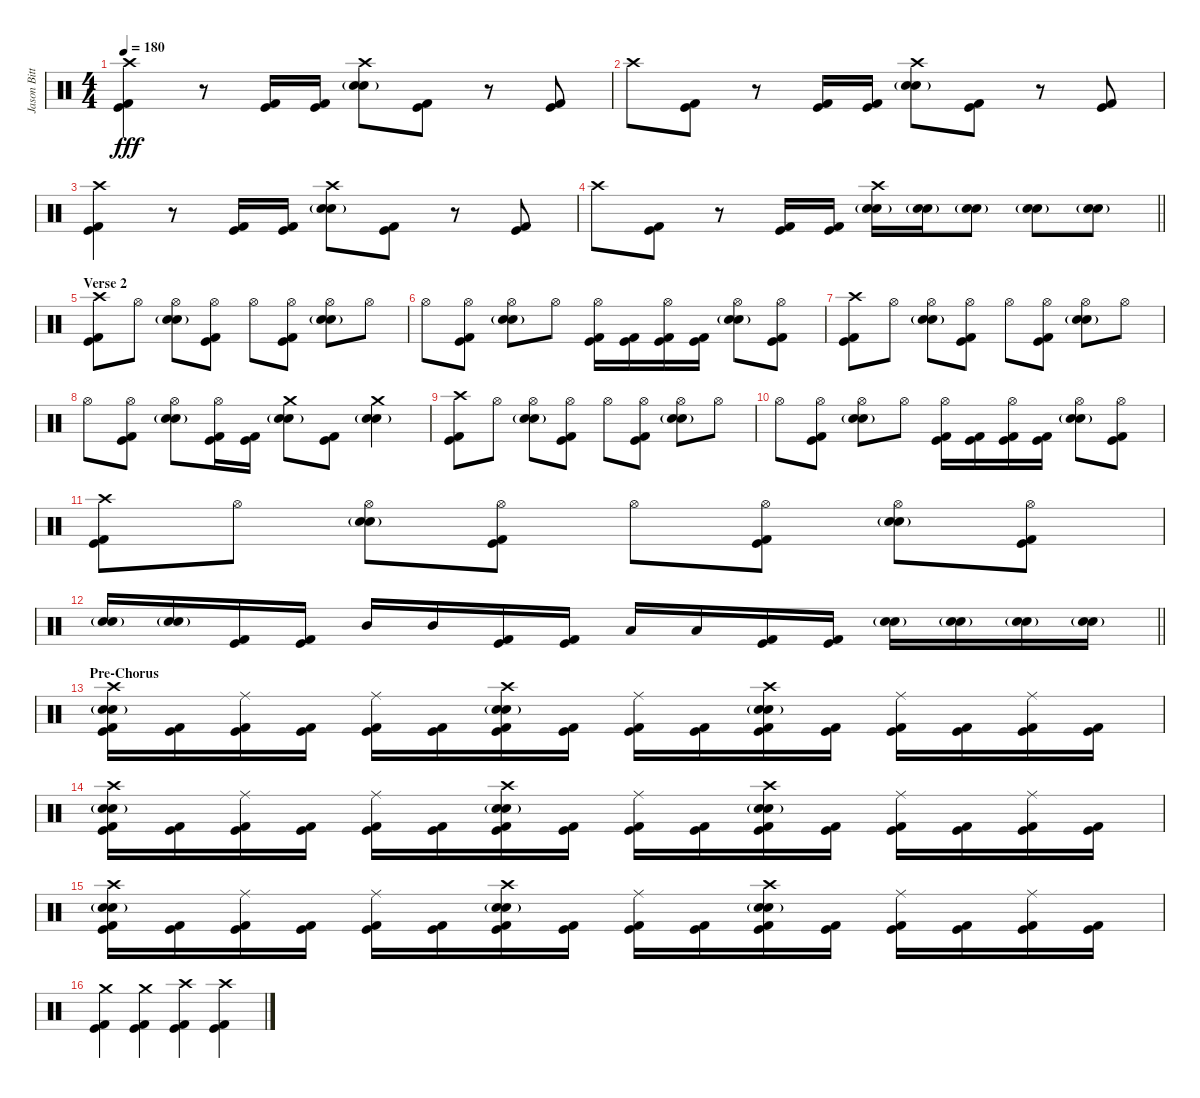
\track ("Jason Bittner" "Jason Bitt") {instrument percussion}
\staff {score}
\articulation defaults
\ts (4 4)
\tempo 180
\clef neutral
\ks c
("Crash high (hit)" "Kick (hit)" "Kick (hit) 2").4{dy fff} r.8 ("Kick (hit)" "Kick (hit) 2").16 ("Kick (hit)" "Kick (hit) 2").16 ("Crash high (hit)" "Snare (hit) 2"{g} "Electric Snare (hit)").8 ("Kick (hit)" "Kick (hit) 2").8 r.8 ("Kick (hit)" "Kick (hit) 2").8 |
"Crash high (hit)".8 ("Kick (hit)" "Kick (hit) 2").8 r.8 ("Kick (hit)" "Kick (hit) 2").16 ("Kick (hit)" "Kick (hit) 2").16 ("Crash high (hit)" "Snare (hit) 2"{g} "Electric Snare (hit)").8 ("Kick (hit)" "Kick (hit) 2").8 r.8 ("Kick (hit)" "Kick (hit) 2").8 |
("Crash high (hit)" "Kick (hit)" "Kick (hit) 2").4 r.8 ("Kick (hit)" "Kick (hit) 2").16 ("Kick (hit)" "Kick (hit) 2").16 ("Crash high (hit)" "Snare (hit) 2"{g} "Electric Snare (hit)").8 ("Kick (hit)" "Kick (hit) 2").8 r.8 ("Kick (hit)" "Kick (hit) 2").8 |
\barLineRight lightlight "Crash high (hit)".8
("Kick (hit)" "Kick (hit) 2").8 r.8 ("Kick (hit)" "Kick (hit) 2").16 ("Kick (hit)" "Kick (hit) 2").16 ("Crash high (hit)" "Snare (hit) 2"{g} "Electric Snare (hit)").16 ("Snare (hit) 2"{g} "Electric Snare (hit)").16 ("Snare (hit) 2"{g} "Electric Snare (hit)").8 ("Snare (hit) 2"{g} "Electric Snare (hit)").8 ("Snare (hit) 2"{g} "Electric Snare (hit)").8 |
\section ("" "Verse 2")
("Crash high (hit)" "Kick (hit)" "Kick (hit) 2").8 "Hi-Hat (open)".8 ("Hi-Hat (open)" "Snare (hit) 2"{g} "Electric Snare (hit)").8 ("Hi-Hat (open)" "Kick (hit)" "Kick (hit) 2").8 "Hi-Hat (open)".8 ("Hi-Hat (open)" "Kick (hit)" "Kick (hit) 2").8 ("Hi-Hat (open)" "Snare (hit) 2"{g} "Electric Snare (hit)").8 "Hi-Hat (open)".8 |
"Hi-Hat (open)".8 ("Hi-Hat (open)" "Kick (hit)" "Kick (hit) 2").8 ("Hi-Hat (open)" "Snare (hit) 2"{g} "Electric Snare (hit)").8 "Hi-Hat (open)".8 ("Hi-Hat (open)" "Kick (hit)" "Kick (hit) 2").16 ("Kick (hit)" "Kick (hit) 2").16 ("Hi-Hat (open)" "Kick (hit)" "Kick (hit) 2").16 ("Kick (hit)" "Kick (hit) 2").16 ("Hi-Hat (open)" "Snare (hit) 2"{g} "Electric Snare (hit)").8 ("Hi-Hat (open)" "Kick (hit)" "Kick (hit) 2").8 |
("Crash high (hit)" "Kick (hit)" "Kick (hit) 2").8 "Hi-Hat (open)".8 ("Hi-Hat (open)" "Snare (hit) 2"{g} "Electric Snare (hit)").8 ("Hi-Hat (open)" "Kick (hit)" "Kick (hit) 2").8 "Hi-Hat (open)".8 ("Hi-Hat (open)" "Kick (hit)" "Kick (hit) 2").8 ("Hi-Hat (open)" "Snare (hit) 2"{g} "Electric Snare (hit)").8 "Hi-Hat (open)".8 |
"Hi-Hat (open)".8 ("Hi-Hat (open)" "Kick (hit)" "Kick (hit) 2").8 ("Hi-Hat (open)" "Snare (hit) 2"{g} "Electric Snare (hit)").8 ("Hi-Hat (open)" "Kick (hit)" "Kick (hit) 2").16 ("Kick (hit)" "Kick (hit) 2").16 ("Crash medium (hit)" "Snare (hit) 2"{g} "Electric Snare (hit)").8 ("Kick (hit)" "Kick (hit) 2").8 ("Crash medium (hit)" "Snare (hit) 2"{g} "Electric Snare (hit)").4 |
("Crash high (hit)" "Kick (hit)" "Kick (hit) 2").8 "Hi-Hat (open)".8 ("Hi-Hat (open)" "Snare (hit) 2"{g} "Electric Snare (hit)").8 ("Hi-Hat (open)" "Kick (hit)" "Kick (hit) 2").8 "Hi-Hat (open)".8 ("Hi-Hat (open)" "Kick (hit)" "Kick (hit) 2").8 ("Hi-Hat (open)" "Snare (hit) 2"{g} "Electric Snare (hit)").8 "Hi-Hat (open)".8 |
"Hi-Hat (open)".8 ("Hi-Hat (open)" "Kick (hit)" "Kick (hit) 2").8 ("Hi-Hat (open)" "Snare (hit) 2"{g} "Electric Snare (hit)").8 "Hi-Hat (open)".8 ("Hi-Hat (open)" "Kick (hit)" "Kick (hit) 2").16 ("Kick (hit)" "Kick (hit) 2").16 ("Hi-Hat (open)" "Kick (hit)" "Kick (hit) 2").16 ("Kick (hit)" "Kick (hit) 2").16 ("Hi-Hat (open)" "Snare (hit) 2"{g} "Electric Snare (hit)").8 ("Hi-Hat (open)" "Kick (hit)" "Kick (hit) 2").8 |
("Crash high (hit)" "Kick (hit)" "Kick (hit) 2").8 "Hi-Hat (open)".8 ("Hi-Hat (open)" "Snare (hit) 2"{g} "Electric Snare (hit)").8 ("Hi-Hat (open)" "Kick (hit)" "Kick (hit) 2").8 "Hi-Hat (open)".8 ("Hi-Hat (open)" "Kick (hit)" "Kick (hit) 2").8 ("Hi-Hat (open)" "Snare (hit) 2"{g} "Electric Snare (hit)").8 ("Hi-Hat (open)" "Kick (hit)" "Kick (hit) 2").8 |
\barLineRight lightlight
("Snare (hit) 2"{g} "Electric Snare (hit)").16 ("Snare (hit) 2"{g} "Electric Snare (hit)").16 ("Kick (hit)" "Kick (hit) 2").16 ("Kick (hit)" "Kick (hit) 2").16 "Mid Tom (hit)".16 "Mid Tom (hit)".16 ("Kick (hit)" "Kick (hit) 2").16 ("Kick (hit)" "Kick (hit) 2").16 "Low Tom (hit)".16 "Low Tom (hit)".16 ("Kick (hit)" "Kick (hit) 2").16 ("Kick (hit)" "Kick (hit) 2").16 ("Snare (hit) 2"{g} "Electric Snare (hit)").16 ("Snare (hit) 2"{g} "Electric Snare (hit)").16 ("Snare (hit) 2"{g} "Electric Snare (hit)").16 ("Snare (hit) 2"{g} "Electric Snare (hit)").16 |
\section ("" "Pre-Chorus")
("Crash high (hit)" "Snare (hit) 2"{g} "Electric Snare (hit)" "Kick (hit)" "Kick (hit) 2").16 ("Kick (hit)" "Kick (hit) 2").16 ("Ride (middle)" "Kick (hit)" "Kick (hit) 2").16 ("Kick (hit)" "Kick (hit) 2").16 ("Ride (middle)" "Kick (hit)" "Kick (hit) 2").16 ("Kick (hit)" "Kick (hit) 2").16 ("Crash high (hit)" "Snare (hit) 2"{g} "Electric Snare (hit)" "Kick (hit)" "Kick (hit) 2").16 ("Kick (hit)" "Kick (hit) 2").16 ("Ride (middle)" "Kick (hit)" "Kick (hit) 2").16 ("Kick (hit)" "Kick (hit) 2").16 ("Crash high (hit)" "Snare (hit) 2"{g} "Electric Snare (hit)" "Kick (hit)" "Kick (hit) 2").16 ("Kick (hit)" "Kick (hit) 2").16 ("Ride (middle)" "Kick (hit)" "Kick (hit) 2").16 ("Kick (hit)" "Kick (hit) 2").16 ("Ride (middle)" "Kick (hit)" "Kick (hit) 2").16 ("Kick (hit)" "Kick (hit) 2").16 |
("Crash high (hit)" "Snare (hit) 2"{g} "Electric Snare (hit)" "Kick (hit)" "Kick (hit) 2").16 ("Kick (hit)" "Kick (hit) 2").16 ("Ride (middle)" "Kick (hit)" "Kick (hit) 2").16 ("Kick (hit)" "Kick (hit) 2").16 ("Ride (middle)" "Kick (hit)" "Kick (hit) 2").16 ("Kick (hit)" "Kick (hit) 2").16 ("Crash high (hit)" "Snare (hit) 2"{g} "Electric Snare (hit)" "Kick (hit)" "Kick (hit) 2").16 ("Kick (hit)" "Kick (hit) 2").16 ("Ride (middle)" "Kick (hit)" "Kick (hit) 2").16 ("Kick (hit)" "Kick (hit) 2").16 ("Crash high (hit)" "Snare (hit) 2"{g} "Electric Snare (hit)" "Kick (hit)" "Kick (hit) 2").16 ("Kick (hit)" "Kick (hit) 2").16 ("Ride (middle)" "Kick (hit)" "Kick (hit) 2").16 ("Kick (hit)" "Kick (hit) 2").16 ("Ride (middle)" "Kick (hit)" "Kick (hit) 2").16 ("Kick (hit)" "Kick (hit) 2").16 |
("Crash high (hit)" "Snare (hit) 2"{g} "Electric Snare (hit)" "Kick (hit)" "Kick (hit) 2").16 ("Kick (hit)" "Kick (hit) 2").16 ("Ride (middle)" "Kick (hit)" "Kick (hit) 2").16 ("Kick (hit)" "Kick (hit) 2").16 ("Ride (middle)" "Kick (hit)" "Kick (hit) 2").16 ("Kick (hit)" "Kick (hit) 2").16 ("Crash high (hit)" "Snare (hit) 2"{g} "Electric Snare (hit)" "Kick (hit)" "Kick (hit) 2").16 ("Kick (hit)" "Kick (hit) 2").16 ("Ride (middle)" "Kick (hit)" "Kick (hit) 2").16 ("Kick (hit)" "Kick (hit) 2").16 ("Crash high (hit)" "Snare (hit) 2"{g} "Electric Snare (hit)" "Kick (hit)" "Kick (hit) 2").16 ("Kick (hit)" "Kick (hit) 2").16 ("Ride (middle)" "Kick (hit)" "Kick (hit) 2").16 ("Kick (hit)" "Kick (hit) 2").16 ("Ride (middle)" "Kick (hit)" "Kick (hit) 2").16 ("Kick (hit)" "Kick (hit) 2").16 |
("Crash medium (hit)" "Kick (hit)" "Kick (hit) 2").4 ("Crash medium (hit)" "Kick (hit)" "Kick (hit) 2").4 ("Crash high (hit)" "Kick (hit)" "Kick (hit) 2").4 ("Crash high (hit)" "Kick (hit)" "Kick (hit) 2").4
